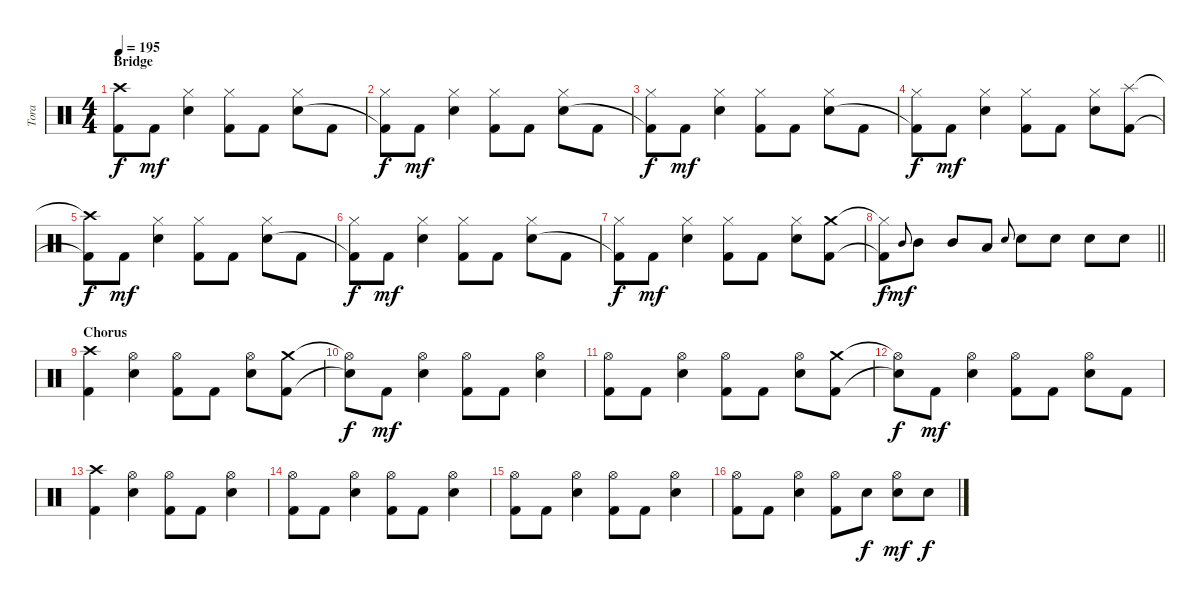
\track ("Tora" "Tora") {instrument percussion}
\staff {score}
\articulation defaults
\ts (4 4)
\section ("" "Bridge")
\tempo 195
\clef neutral
\ks c
("Crash high (hit)"{t} "Kick (hit) 2"{t}).8{dy f} "Kick (hit) 2".8{dy mf} ("Hi-Hat (closed)" "Electric Snare (hit)").4 ("Hi-Hat (closed)" "Kick (hit) 2").8 "Kick (hit) 2".8 ("Hi-Hat (closed)" "Electric Snare (hit)").8 "Kick (hit) 2".8 |
("Hi-Hat (closed)" "Kick (hit) 2"{t}).8{dy f} "Kick (hit) 2".8{dy mf} ("Hi-Hat (closed)" "Electric Snare (hit)").4 ("Hi-Hat (closed)" "Kick (hit) 2").8 "Kick (hit) 2".8 ("Hi-Hat (closed)" "Electric Snare (hit)").8 "Kick (hit) 2".8 |
("Hi-Hat (closed)" "Kick (hit) 2"{t}).8{dy f} "Kick (hit) 2".8{dy mf} ("Hi-Hat (closed)" "Electric Snare (hit)").4 ("Hi-Hat (closed)" "Kick (hit) 2").8 "Kick (hit) 2".8 ("Hi-Hat (closed)" "Electric Snare (hit)").8 "Kick (hit) 2".8 |
("Hi-Hat (closed)" "Kick (hit) 2"{t}).8{dy f} "Kick (hit) 2".8{dy mf} ("Hi-Hat (closed)" "Electric Snare (hit)").4 ("Hi-Hat (closed)" "Kick (hit) 2").8 "Kick (hit) 2".8 ("Hi-Hat (closed)" "Electric Snare (hit)").8 ("Splash (hit)" "Kick (hit) 2").8 |
("Crash high (hit)"{t} "Kick (hit) 2"{t}).8{dy f} "Kick (hit) 2".8{dy mf} ("Hi-Hat (closed)" "Electric Snare (hit)").4 ("Hi-Hat (closed)" "Kick (hit) 2").8 "Kick (hit) 2".8 ("Hi-Hat (closed)" "Electric Snare (hit)").8 "Kick (hit) 2".8 |
("Hi-Hat (closed)" "Kick (hit) 2"{t}).8{dy f} "Kick (hit) 2".8{dy mf} ("Hi-Hat (closed)" "Electric Snare (hit)").4 ("Hi-Hat (closed)" "Kick (hit) 2").8 "Kick (hit) 2".8 ("Hi-Hat (closed)" "Electric Snare (hit)").8 "Kick (hit) 2".8 |
("Hi-Hat (closed)" "Kick (hit) 2"{t}).8{dy f} "Kick (hit) 2".8{dy mf} ("Hi-Hat (closed)" "Electric Snare (hit)").4 ("Hi-Hat (closed)" "Kick (hit) 2").8 "Kick (hit) 2".8 ("Hi-Hat (closed)" "Electric Snare (hit)").8 ("Crash medium (hit)" "Kick (hit) 2").8 |
\barLineRight lightlight
("Hi-Hat (closed)"{t} "Kick (hit) 2"{t}).8{dy f} "Mid Tom (hit)".8{gr onbeat dy mf} "Mid Tom (hit)".8 "Mid Tom (hit)".8 "Low Tom (hit)".8 "Electric Snare (hit)".8{gr onbeat} "Electric Snare (hit)".8 "Electric Snare (hit)".8 "Electric Snare (hit)".8 "Electric Snare (hit)".8 |
\section ("" "Chorus")
("Crash high (hit)" "Kick (hit) 2").4 ("Hi-Hat (open)" "Electric Snare (hit)").4 ("Hi-Hat (open)" "Kick (hit) 2").8 "Kick (hit) 2".8 ("Hi-Hat (open)" "Electric Snare (hit)").8 ("Crash medium (hit)" "Kick (hit) 2").8 |
("Hi-Hat (open)"{t} "Snare (hit)"{t}).8{dy f} "Kick (hit) 2".8{dy mf} ("Hi-Hat (open)" "Electric Snare (hit)").4 ("Hi-Hat (open)" "Kick (hit) 2").8 "Kick (hit) 2".8 ("Hi-Hat (open)" "Electric Snare (hit)").4 |
("Hi-Hat (open)" "Kick (hit) 2").8 "Kick (hit) 2".8 ("Hi-Hat (open)" "Electric Snare (hit)").4 ("Hi-Hat (open)" "Kick (hit) 2").8 "Kick (hit) 2".8 ("Hi-Hat (open)" "Electric Snare (hit)").8 ("Crash medium (hit)" "Kick (hit) 2").8 |
("Hi-Hat (open)"{t} "Snare (hit)"{t}).8{dy f} "Kick (hit) 2".8{dy mf} ("Hi-Hat (open)" "Electric Snare (hit)").4 ("Hi-Hat (open)" "Kick (hit) 2").8 "Kick (hit) 2".8 ("Hi-Hat (open)" "Electric Snare (hit)").8 "Kick (hit) 2".8 |
("Crash high (hit)" "Kick (hit) 2").4 ("Hi-Hat (open)" "Electric Snare (hit)").4 ("Hi-Hat (open)" "Kick (hit) 2").8 "Kick (hit) 2".8 ("Hi-Hat (open)" "Electric Snare (hit)").4 |
("Hi-Hat (open)" "Kick (hit) 2").8 "Kick (hit) 2".8 ("Hi-Hat (open)" "Electric Snare (hit)").4 ("Hi-Hat (open)" "Kick (hit) 2").8 "Kick (hit) 2".8 ("Hi-Hat (open)" "Electric Snare (hit)").4 |
("Hi-Hat (open)" "Kick (hit) 2").8 "Kick (hit) 2".8 ("Hi-Hat (open)" "Electric Snare (hit)").4 ("Hi-Hat (open)" "Kick (hit) 2").8 "Kick (hit) 2".8 ("Hi-Hat (open)" "Electric Snare (hit)").4 |
("Hi-Hat (open)" "Kick (hit) 2").8 "Kick (hit) 2".8 ("Hi-Hat (open)" "Electric Snare (hit)").4 ("Hi-Hat (open)" "Kick (hit) 2").8 "Electric Snare (hit)".8{dy f} ("Hi-Hat (open)" "Electric Snare (hit)").8{dy mf} "Electric Snare (hit)".8{dy f}
